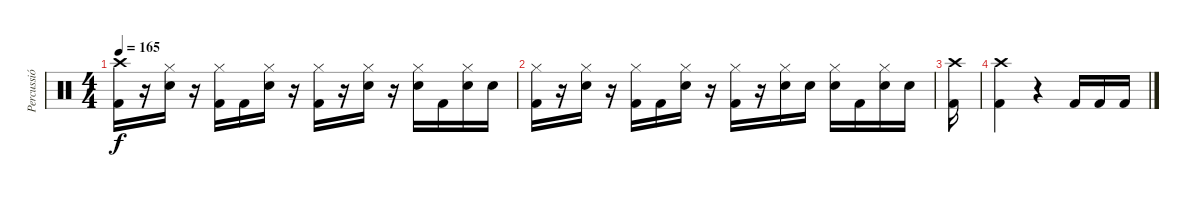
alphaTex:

\track ("Percussió" "Percussió") {instrument percussion}
\staff {score}
\articulation defaults
\ts (4 4)
\tempo 165
\clef neutral
\ks c
("Crash high (hit)" "Kick (hit) 2").16{dy f} r.16 ("Hi-Hat (closed)" "Electric Snare (hit)").16 r.16 ("Hi-Hat (closed)" "Kick (hit) 2").16 "Kick (hit) 2".16 ("Hi-Hat (closed)" "Electric Snare (hit)").16 r.16 ("Hi-Hat (closed)" "Kick (hit) 2").16 r.16 ("Hi-Hat (closed)" "Electric Snare (hit)").16 r.16 ("Hi-Hat (closed)" "Electric Snare (hit)").16 "Kick (hit) 2".16 ("Hi-Hat (closed)" "Electric Snare (hit)").16 "Electric Snare (hit)".16 |
("Hi-Hat (closed)" "Kick (hit) 2").16 r.16 ("Hi-Hat (closed)" "Electric Snare (hit)").16 r.16 ("Hi-Hat (closed)" "Kick (hit) 2").16 "Kick (hit) 2".16 ("Hi-Hat (closed)" "Electric Snare (hit)").16 r.16 ("Hi-Hat (closed)" "Kick (hit) 2").16 r.16 ("Hi-Hat (closed)" "Electric Snare (hit)").16 "Electric Snare (hit)".16 ("Hi-Hat (closed)" "Electric Snare (hit)").16 "Kick (hit) 2".16 ("Hi-Hat (closed)" "Electric Snare (hit)").16 "Electric Snare (hit)".16 |
("Crash high (hit)" "Kick (hit) 2").16 |
("Crash high (hit)" "Kick (hit) 2").4 r.4 "Kick (hit) 2".16 "Kick (hit) 2".16 "Kick (hit) 2".16
